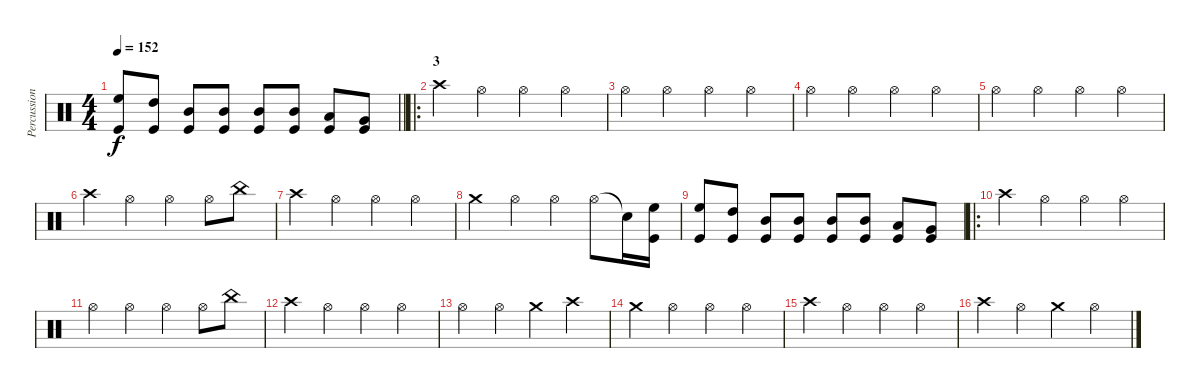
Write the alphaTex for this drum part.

\track ("Percussion" "Percussion") {instrument percussion}
\staff {score}
\articulation defaults
\ts (4 4)
\tempo 152
\clef neutral
\barLineRight lightlight
\ks c
("High Floor Tom (hit)" "Kick (hit)").8{dy f} ("High Tom (hit)" "Kick (hit)").8 ("Mid Tom (hit)" "Kick (hit)").8 ("Mid Tom (hit)" "Kick (hit)").8 ("Mid Tom (hit)" "Kick (hit)").8 ("Mid Tom (hit)" "Kick (hit)").8 ("Low Tom (hit)" "Kick (hit)").8 ("Very Low Tom (hit)" "Kick (hit)").8 |
\ro
\section ("" "3")
"Crash high (hit)".4 "Hi-Hat (open)".4 "Hi-Hat (open)".4 "Hi-Hat (open)".4 |
"Hi-Hat (open)".4 "Hi-Hat (open)".4 "Hi-Hat (open)".4 "Hi-Hat (open)".4 |
"Hi-Hat (open)".4 "Hi-Hat (open)".4 "Hi-Hat (open)".4 "Hi-Hat (open)".4 |
"Hi-Hat (open)".4 "Hi-Hat (open)".4 "Hi-Hat (open)".4 "Hi-Hat (open)".4 |
"Crash high (hit)".4 "Hi-Hat (open)".4 "Hi-Hat (open)".4 "Hi-Hat (open)".8 "China (hit)".8 |
"Crash high (hit)".4 "Hi-Hat (open)".4 "Hi-Hat (open)".4 "Hi-Hat (open)".4 |
"Crash medium (hit)".4 "Hi-Hat (open)".4 "Hi-Hat (open)".4 "Hi-Hat (open)".8 "Snare (hit)"{t}.16 ("High Floor Tom (hit)" "Kick (hit)").16 |
("High Floor Tom (hit)" "Kick (hit)").8 ("High Tom (hit)" "Kick (hit)").8 ("Mid Tom (hit)" "Kick (hit)").8 ("Mid Tom (hit)" "Kick (hit)").8 ("Mid Tom (hit)" "Kick (hit)").8 ("Mid Tom (hit)" "Kick (hit)").8 ("Low Tom (hit)" "Kick (hit)").8 ("Very Low Tom (hit)" "Kick (hit)").8 |
\ro "Crash high (hit)".4 "Hi-Hat (open)".4 "Hi-Hat (open)".4 "Hi-Hat (open)".4
|
"Hi-Hat (open)".4 "Hi-Hat (open)".4 "Hi-Hat (open)".4 "Hi-Hat (open)".8 "China (hit)".8 |
"Crash high (hit)".4 "Hi-Hat (open)".4 "Hi-Hat (open)".4 "Hi-Hat (open)".4 |
"Hi-Hat (open)".4 "Hi-Hat (open)".4 "Crash medium (hit)".4 "Crash high (hit)".4 |
"Crash medium (hit)".4 "Hi-Hat (open)".4 "Hi-Hat (open)".4 "Hi-Hat (open)".4 |
"Crash high (hit)".4 "Hi-Hat (open)".4 "Hi-Hat (open)".4 "Hi-Hat (open)".4 |
"Crash high (hit)".4 "Hi-Hat (open)".4 "Crash medium (hit)".4 "Hi-Hat (open)".4
